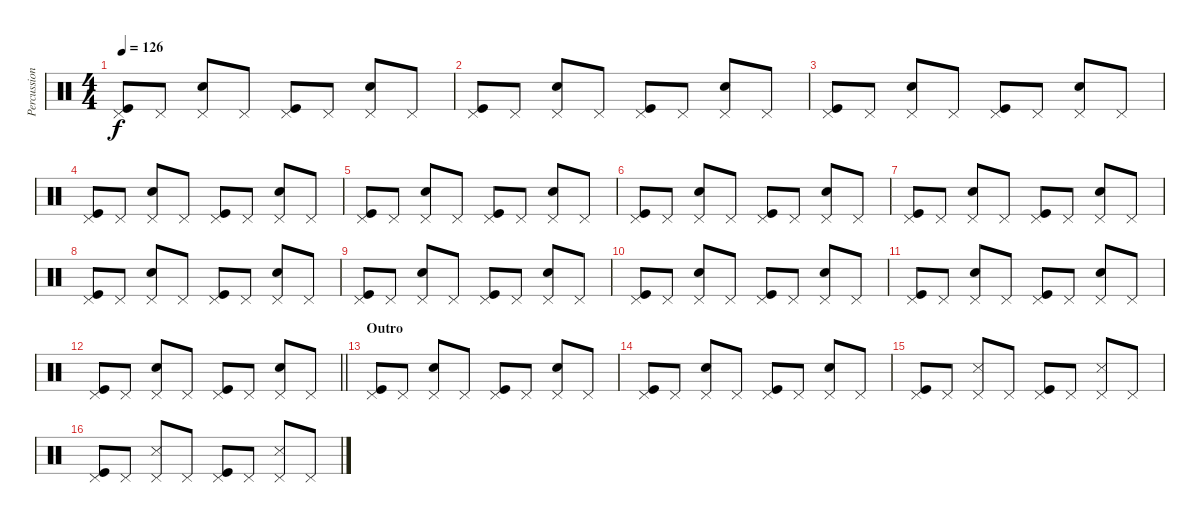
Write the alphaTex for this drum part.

\track ("Percussion" "Percussion") {instrument percussion}
\staff {score}
\articulation defaults
\ts (4 4)
\tempo 126
\clef neutral
\ks c
("Pedal Hi-Hat (hit)" "Kick (hit)").8{dy f} "Pedal Hi-Hat (hit)".8 ("Pedal Hi-Hat (hit)" "Snare (hit) 2").8 "Pedal Hi-Hat (hit)".8 ("Pedal Hi-Hat (hit)" "Kick (hit)").8 "Pedal Hi-Hat (hit)".8 ("Pedal Hi-Hat (hit)" "Snare (hit) 2").8 "Pedal Hi-Hat (hit)".8 |
("Pedal Hi-Hat (hit)" "Kick (hit)").8 "Pedal Hi-Hat (hit)".8 ("Pedal Hi-Hat (hit)" "Snare (hit) 2").8 "Pedal Hi-Hat (hit)".8 ("Pedal Hi-Hat (hit)" "Kick (hit)").8 "Pedal Hi-Hat (hit)".8 ("Pedal Hi-Hat (hit)" "Snare (hit) 2").8 "Pedal Hi-Hat (hit)".8 |
("Pedal Hi-Hat (hit)" "Kick (hit)").8 "Pedal Hi-Hat (hit)".8 ("Pedal Hi-Hat (hit)" "Snare (hit) 2").8 "Pedal Hi-Hat (hit)".8 ("Pedal Hi-Hat (hit)" "Kick (hit)").8 "Pedal Hi-Hat (hit)".8 ("Pedal Hi-Hat (hit)" "Snare (hit) 2").8 "Pedal Hi-Hat (hit)".8 |
("Pedal Hi-Hat (hit)" "Kick (hit)").8 "Pedal Hi-Hat (hit)".8 ("Pedal Hi-Hat (hit)" "Snare (hit) 2").8 "Pedal Hi-Hat (hit)".8 ("Pedal Hi-Hat (hit)" "Kick (hit)").8 "Pedal Hi-Hat (hit)".8 ("Pedal Hi-Hat (hit)" "Snare (hit) 2").8 "Pedal Hi-Hat (hit)".8 |
("Pedal Hi-Hat (hit)" "Kick (hit)").8 "Pedal Hi-Hat (hit)".8 ("Pedal Hi-Hat (hit)" "Snare (hit) 2").8 "Pedal Hi-Hat (hit)".8 ("Pedal Hi-Hat (hit)" "Kick (hit)").8 "Pedal Hi-Hat (hit)".8 ("Pedal Hi-Hat (hit)" "Snare (hit) 2").8 "Pedal Hi-Hat (hit)".8 |
("Pedal Hi-Hat (hit)" "Kick (hit)").8 "Pedal Hi-Hat (hit)".8 ("Pedal Hi-Hat (hit)" "Snare (hit) 2").8 "Pedal Hi-Hat (hit)".8 ("Pedal Hi-Hat (hit)" "Kick (hit)").8 "Pedal Hi-Hat (hit)".8 ("Pedal Hi-Hat (hit)" "Snare (hit) 2").8 "Pedal Hi-Hat (hit)".8 |
("Pedal Hi-Hat (hit)" "Kick (hit)").8 "Pedal Hi-Hat (hit)".8 ("Pedal Hi-Hat (hit)" "Snare (hit) 2").8 "Pedal Hi-Hat (hit)".8 ("Pedal Hi-Hat (hit)" "Kick (hit)").8 "Pedal Hi-Hat (hit)".8 ("Pedal Hi-Hat (hit)" "Snare (hit) 2").8 "Pedal Hi-Hat (hit)".8 |
("Pedal Hi-Hat (hit)" "Kick (hit)").8 "Pedal Hi-Hat (hit)".8 ("Pedal Hi-Hat (hit)" "Snare (hit) 2").8 "Pedal Hi-Hat (hit)".8 ("Pedal Hi-Hat (hit)" "Kick (hit)").8 "Pedal Hi-Hat (hit)".8 ("Pedal Hi-Hat (hit)" "Snare (hit) 2").8 "Pedal Hi-Hat (hit)".8 |
("Pedal Hi-Hat (hit)" "Kick (hit)").8 "Pedal Hi-Hat (hit)".8 ("Pedal Hi-Hat (hit)" "Snare (hit) 2").8 "Pedal Hi-Hat (hit)".8 ("Pedal Hi-Hat (hit)" "Kick (hit)").8 "Pedal Hi-Hat (hit)".8 ("Pedal Hi-Hat (hit)" "Snare (hit) 2").8 "Pedal Hi-Hat (hit)".8 |
("Pedal Hi-Hat (hit)" "Kick (hit)").8 "Pedal Hi-Hat (hit)".8 ("Pedal Hi-Hat (hit)" "Snare (hit) 2").8 "Pedal Hi-Hat (hit)".8 ("Pedal Hi-Hat (hit)" "Kick (hit)").8 "Pedal Hi-Hat (hit)".8 ("Pedal Hi-Hat (hit)" "Snare (hit) 2").8 "Pedal Hi-Hat (hit)".8 |
("Pedal Hi-Hat (hit)" "Kick (hit)").8 "Pedal Hi-Hat (hit)".8 ("Pedal Hi-Hat (hit)" "Snare (hit) 2").8 "Pedal Hi-Hat (hit)".8 ("Pedal Hi-Hat (hit)" "Kick (hit)").8 "Pedal Hi-Hat (hit)".8 ("Pedal Hi-Hat (hit)" "Snare (hit) 2").8 "Pedal Hi-Hat (hit)".8 |
\barLineRight lightlight
("Pedal Hi-Hat (hit)" "Kick (hit)").8 "Pedal Hi-Hat (hit)".8 ("Pedal Hi-Hat (hit)" "Snare (hit) 2").8 "Pedal Hi-Hat (hit)".8 ("Pedal Hi-Hat (hit)" "Kick (hit)").8 "Pedal Hi-Hat (hit)".8 ("Pedal Hi-Hat (hit)" "Snare (hit) 2").8 "Pedal Hi-Hat (hit)".8 |
\section ("" "Outro")
("Pedal Hi-Hat (hit)" "Kick (hit)").8 "Pedal Hi-Hat (hit)".8 ("Pedal Hi-Hat (hit)" "Snare (hit) 2").8 "Pedal Hi-Hat (hit)".8 ("Pedal Hi-Hat (hit)" "Kick (hit)").8 "Pedal Hi-Hat (hit)".8 ("Pedal Hi-Hat (hit)" "Snare (hit) 2").8 "Pedal Hi-Hat (hit)".8 |
("Pedal Hi-Hat (hit)" "Kick (hit)").8 "Pedal Hi-Hat (hit)".8 ("Pedal Hi-Hat (hit)" "Snare (hit) 2").8 "Pedal Hi-Hat (hit)".8 ("Pedal Hi-Hat (hit)" "Kick (hit)").8 "Pedal Hi-Hat (hit)".8 ("Pedal Hi-Hat (hit)" "Snare (hit) 2").8 "Pedal Hi-Hat (hit)".8 |
("Pedal Hi-Hat (hit)" "Kick (hit)").8 "Pedal Hi-Hat (hit)".8 ("Pedal Hi-Hat (hit)" "Snare (side stick) 3").8 "Pedal Hi-Hat (hit)".8 ("Pedal Hi-Hat (hit)" "Kick (hit)").8 "Pedal Hi-Hat (hit)".8 ("Pedal Hi-Hat (hit)" "Snare (side stick) 3").8 "Pedal Hi-Hat (hit)".8 |
("Pedal Hi-Hat (hit)" "Kick (hit)").8 "Pedal Hi-Hat (hit)".8 ("Pedal Hi-Hat (hit)" "Snare (side stick) 3").8 "Pedal Hi-Hat (hit)".8 ("Pedal Hi-Hat (hit)" "Kick (hit)").8 "Pedal Hi-Hat (hit)".8 ("Pedal Hi-Hat (hit)" "Snare (side stick) 3").8 "Pedal Hi-Hat (hit)".8
